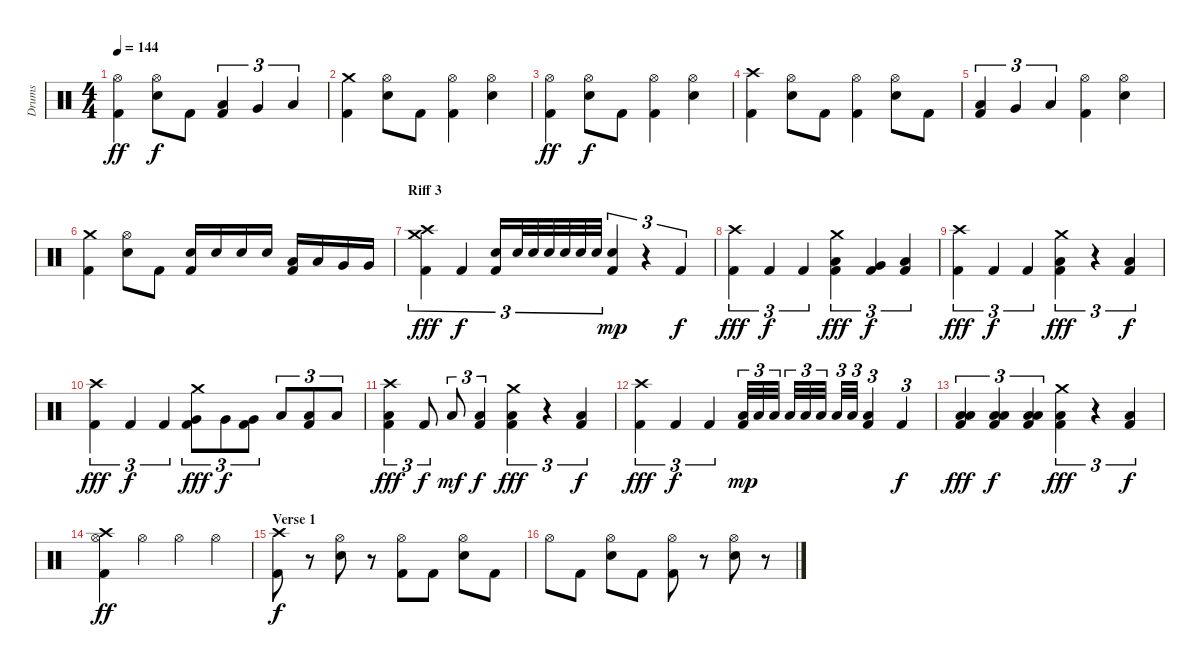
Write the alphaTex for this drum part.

\track ("Drums" "Drums") {instrument percussion}
\staff {score}
\articulation defaults
\ts (4 4)
\tempo 144
\clef neutral
\ks c
("Kick (hit) 2" "Hi-Hat (open)").4{dy ff} ("Hi-Hat (open)" "Electric Snare (hit)").8{dy f} "Kick (hit) 2".8 ("Kick (hit) 2" "Low Tom (hit)").4{tu (3 2)} "Very Low Tom (hit)".4{tu (3 2)} "Low Floor Tom (hit)".4{tu (3 2)} |
("Kick (hit) 2" "Crash medium (hit)").4 ("Hi-Hat (open)" "Electric Snare (hit)").8 "Kick (hit) 2".8 ("Kick (hit) 2" "Hi-Hat (open)").4 ("Hi-Hat (open)" "Electric Snare (hit)").4 |
("Kick (hit) 2" "Hi-Hat (open)").4{dy ff} ("Hi-Hat (open)" "Electric Snare (hit)").8{dy f} "Kick (hit) 2".8 ("Kick (hit) 2" "Hi-Hat (open)").4 ("Hi-Hat (open)" "Electric Snare (hit)").4 |
("Kick (hit) 2" "Crash high (hit)").4 ("Hi-Hat (open)" "Electric Snare (hit)").8 "Kick (hit) 2".8 ("Kick (hit) 2" "Hi-Hat (open)").4 ("Hi-Hat (open)" "Electric Snare (hit)").8 "Kick (hit) 2".8 |
("Kick (hit) 2" "Low Tom (hit)").4{tu (3 2)} "Very Low Tom (hit)".4{tu (3 2)} "Low Floor Tom (hit)".4{tu (3 2)} ("Kick (hit) 2" "Hi-Hat (open)").4 ("Hi-Hat (open)" "Electric Snare (hit)").4 |
("Kick (hit) 2" "Crash medium (hit)").4 ("Hi-Hat (open)" "Electric Snare (hit)").8 "Kick (hit) 2".8 ("Kick (hit) 2" "Electric Snare (hit)").16 "Electric Snare (hit)".16 "Electric Snare (hit)".16 "Electric Snare (hit)".16 ("Kick (hit) 2" "Low Tom (hit)").16 "Low Tom (hit)".16 "Very Low Tom (hit)".16 "Very Low Tom (hit)".16 |
\section ("" "Riff 3")
("Kick (hit) 2" "Crash medium (hit)" "Crash high (hit)").4{tu (3 2) dy fff} "Kick (hit) 2".4{tu (3 2) dy f} ("Kick (hit) 2" "Electric Snare (hit)").16{tu (3 2)} "Electric Snare (hit)".32{tu (3 2)} "Electric Snare (hit)".32{tu (3 2)} "Electric Snare (hit)".32{tu (3 2)} "Electric Snare (hit)".32{tu (3 2)} "Electric Snare (hit)".32{tu (3 2)} "Electric Snare (hit)".32{tu (3 2)} ("Kick (hit) 2" "Electric Snare (hit)").4{tu (3 2) dy mp} r.4{tu (3 2)} "Kick (hit) 2".4{tu (3 2) dy f} |
("Kick (hit) 2" "Crash high (hit)").4{tu (3 2) dy fff} "Kick (hit) 2".4{tu (3 2) dy f} "Kick (hit) 2".4{tu (3 2)} ("Kick (hit) 2" "Low Tom (hit)" "Crash medium (hit)").4{tu (3 2) dy fff} ("Kick (hit) 2" "Very Low Tom (hit)").4{tu (3 2) dy f} ("Kick (hit) 2" "Low Floor Tom (hit)").4{tu (3 2)} |
("Kick (hit) 2" "Crash high (hit)").4{tu (3 2) dy fff} "Kick (hit) 2".4{tu (3 2) dy f} "Kick (hit) 2".4{tu (3 2)} ("Kick (hit) 2" "Low Floor Tom (hit)" "Crash medium (hit)").4{tu (3 2) dy fff} r.4{tu (3 2)} ("Kick (hit) 2" "Low Tom (hit)").4{tu (3 2) dy f} |
("Kick (hit) 2" "Crash high (hit)").4{tu (3 2) dy fff} "Kick (hit) 2".4{tu (3 2) dy f} "Kick (hit) 2".4{tu (3 2)} ("Kick (hit) 2" "Very Low Tom (hit)" "Crash medium (hit)").8{tu (3 2) dy fff} "Very Low Tom (hit)".8{tu (3 2) dy f} ("Kick (hit) 2" "Very Low Tom (hit)").8{tu (3 2)} "Low Tom (hit)".8{tu (3 2)} ("Kick (hit) 2" "Low Tom (hit)").8{tu (3 2)} "Low Tom (hit)".8{tu (3 2)} |
("Kick (hit) 2" "Low Floor Tom (hit)" "Crash high (hit)").4{tu (3 2) dy fff} "Kick (hit) 2".8{tu (3 2) dy f} "Low Tom (hit)".8{tu (3 2) dy mf} ("Kick (hit) 2" "Low Tom (hit)").4{tu (3 2) dy f} ("Kick (hit) 2" "Low Tom (hit)" "Crash medium (hit)").4{tu (3 2) dy fff} r.4{tu (3 2)} ("Kick (hit) 2" "Low Floor Tom (hit)").4{tu (3 2) dy f} |
("Kick (hit) 2" "Crash high (hit)").4{tu (3 2) dy fff} "Kick (hit) 2".4{tu (3 2) dy f} "Kick (hit) 2".4{tu (3 2)} ("Kick (hit) 2" "Low Tom (hit)").32{tu (3 2) dy mp} "Low Tom (hit)".32{tu (3 2)} "Low Tom (hit)".32{tu (3 2)} "Low Tom (hit)".32{tu (3 2)} "Low Tom (hit)".32{tu (3 2)} "Low Tom (hit)".32{tu (3 2)} "Low Tom (hit)".32{tu (3 2)} "Low Tom (hit)".32{tu (3 2)} ("Kick (hit) 2" "Low Tom (hit)").4{tu (3 2)} "Kick (hit) 2".4{tu (3 2) dy f} |
("Kick (hit) 2" "Low Floor Tom (hit)" "Low Tom (hit)").4{tu (3 2) dy fff} ("Kick (hit) 2" "Low Floor Tom (hit)" "Low Tom (hit)").4{tu (3 2) dy f} ("Kick (hit) 2" "Low Floor Tom (hit)" "Low Tom (hit)").4{tu (3 2)} ("Kick (hit) 2" "Low Floor Tom (hit)" "Crash medium (hit)").4{tu (3 2) dy fff} r.4{tu (3 2)} ("Kick (hit) 2" "Low Tom (hit)").4{tu (3 2) dy f} |
("Kick (hit) 2" "Hi-Hat (open)" "Crash high (hit)").4{dy ff} "Hi-Hat (open)".4 "Hi-Hat (open)".4 "Hi-Hat (open)".4 |
\section ("" "Verse 1")
("Kick (hit) 2" "Crash high (hit)").8{dy f} r.8 ("Hi-Hat (open)" "Electric Snare (hit)").8 r.8 ("Kick (hit) 2" "Hi-Hat (open)").8 "Kick (hit) 2".8 ("Hi-Hat (open)" "Electric Snare (hit)").8 "Kick (hit) 2".8 |
"Hi-Hat (open)".8 "Kick (hit) 2".8 ("Hi-Hat (open)" "Electric Snare (hit)").8 "Kick (hit) 2".8 ("Kick (hit) 2" "Hi-Hat (open)").8 r.8 ("Hi-Hat (open)" "Electric Snare (hit)").8 r.8
